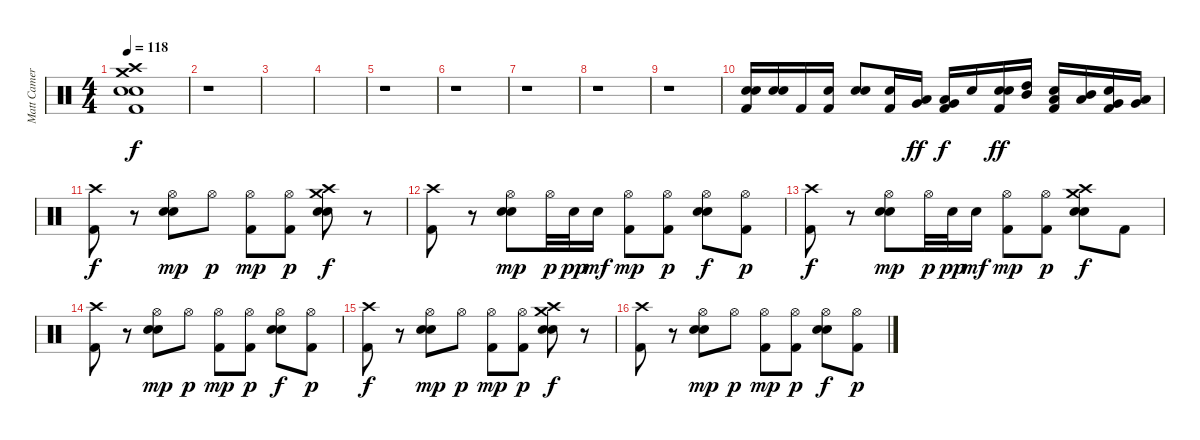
\track ("Matt Cameron" "Matt Camer") {instrument percussion}
\staff
\articulation defaults
\ts (4 4)
\tempo 118
\clef neutral
\ks c
("Crash medium (hit)" "Crash high (hit)" "Electric Snare (hit)" "Snare (hit) 2" "Kick (hit) 2").1{dy f} |
r.1 |
|
|
r.1 |
r.1 |
r.1 |
r.1 |
r.1 |
("Snare (hit) 2" "Electric Snare (hit)" "Kick (hit) 2").16 ("Snare (hit) 2" "Electric Snare (hit)").16 "Kick (hit) 2".16 ("Electric Snare (hit)" "Kick (hit) 2").16 ("Snare (hit) 2" "Electric Snare (hit)").8 ("Electric Snare (hit)" "Kick (hit) 2").16 ("Very Low Tom (hit)" "Low Tom (hit)").16{dy ff} ("Very Low Tom (hit)" "Low Floor Tom (hit)" "Kick (hit) 2").16{dy f} "Electric Snare (hit)".16 ("Snare (hit) 2" "Electric Snare (hit)" "Kick (hit) 2").16{dy ff} ("High Tom (hit)" "Mid Tom (hit)").16 ("Low Tom (hit)" "Electric Snare (hit)" "Kick (hit) 2").16 ("Low Tom (hit)" "Mid Tom (hit)").16 ("Very Low Tom (hit)" "Electric Snare (hit)" "Kick (hit) 2").16 ("Very Low Tom (hit)" "Low Tom (hit)").16 |
("Crash high (hit)" "Kick (hit) 2").8{dy f} r.8 ("Hi-Hat (open)" "Electric Snare (hit)" "Snare (hit) 2").8{dy mp} "Hi-Hat (open)".8{dy p} ("Hi-Hat (open)" "Kick (hit) 2").8{dy mp} ("Hi-Hat (open)" "Kick (hit) 2").8{dy p} ("Crash medium (hit)" "Crash high (hit)" "Electric Snare (hit)" "Snare (hit) 2").8{dy f} r.8 |
("Crash high (hit)" "Kick (hit) 2").8 r.8 ("Hi-Hat (open)" "Electric Snare (hit)" "Snare (hit) 2").8{dy mp} "Hi-Hat (open)".32{dy p} "Snare (hit) 2".32{dy pp} "Snare (hit) 2".16{dy mf} ("Hi-Hat (open)" "Kick (hit) 2").8{dy mp} ("Hi-Hat (open)" "Kick (hit) 2").8{dy p} ("Hi-Hat (open)" "Electric Snare (hit)" "Snare (hit) 2").8{dy f} ("Hi-Hat (open)" "Kick (hit) 2").8{dy p} |
("Crash high (hit)" "Kick (hit) 2").8{dy f} r.8 ("Hi-Hat (open)" "Electric Snare (hit)" "Snare (hit) 2").8{dy mp} "Hi-Hat (open)".32{dy p} "Snare (hit) 2".32{dy pp} "Snare (hit) 2".16{dy mf} ("Hi-Hat (open)" "Kick (hit) 2").8{dy mp} ("Hi-Hat (open)" "Kick (hit) 2").8{dy p} ("Crash medium (hit)" "Crash high (hit)" "Electric Snare (hit)" "Snare (hit) 2").8{dy f} "Kick (hit) 2".8 |
("Crash high (hit)" "Kick (hit) 2").8 r.8 ("Hi-Hat (open)" "Electric Snare (hit)" "Snare (hit) 2").8{dy mp} "Hi-Hat (open)".8{dy p} ("Hi-Hat (open)" "Kick (hit) 2").8{dy mp} ("Hi-Hat (open)" "Kick (hit) 2").8{dy p} ("Hi-Hat (open)" "Electric Snare (hit)" "Snare (hit) 2").8{dy f} ("Hi-Hat (open)" "Kick (hit) 2").8{dy p} |
("Crash high (hit)" "Kick (hit) 2").8{dy f} r.8 ("Hi-Hat (open)" "Electric Snare (hit)" "Snare (hit) 2").8{dy mp} "Hi-Hat (open)".8{dy p} ("Hi-Hat (open)" "Kick (hit) 2").8{dy mp} ("Hi-Hat (open)" "Kick (hit) 2").8{dy p} ("Crash medium (hit)" "Crash high (hit)" "Electric Snare (hit)" "Snare (hit) 2").8{dy f} r.8 |
("Crash high (hit)" "Kick (hit) 2").8 r.8 ("Hi-Hat (open)" "Electric Snare (hit)" "Snare (hit) 2").8{dy mp} "Hi-Hat (open)".8{dy p} ("Hi-Hat (open)" "Kick (hit) 2").8{dy mp} ("Hi-Hat (open)" "Kick (hit) 2").8{dy p} ("Hi-Hat (open)" "Electric Snare (hit)" "Snare (hit) 2").8{dy f} ("Hi-Hat (open)" "Kick (hit) 2").8{dy p}
